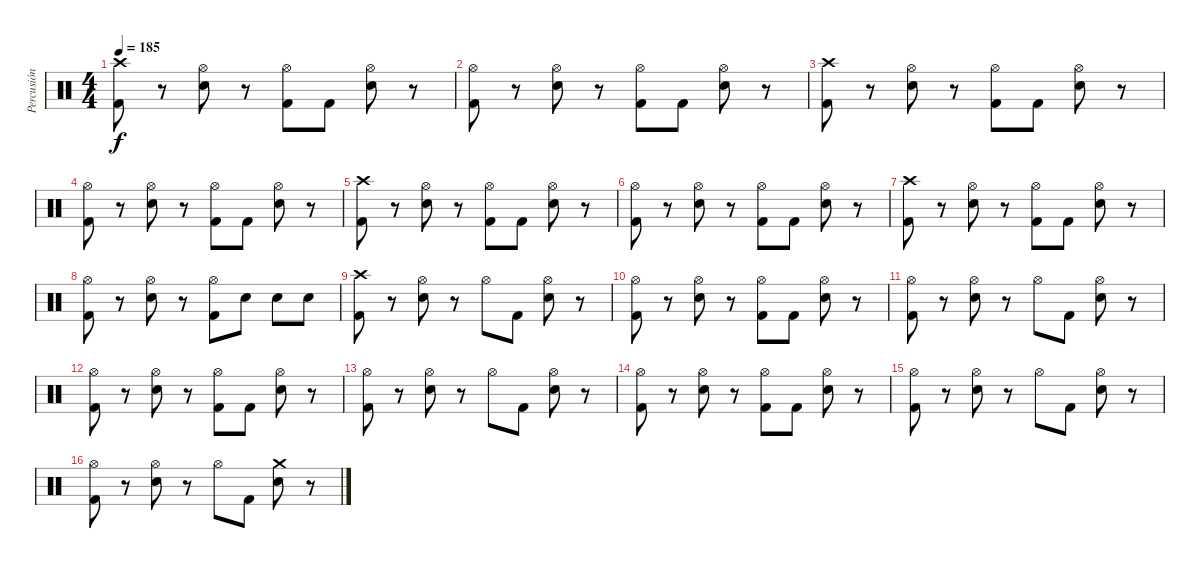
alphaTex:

\track ("Percusión" "Percusión") {instrument percussion}
\staff {score}
\articulation defaults
\ts (4 4)
\tempo 185
\clef neutral
\ks c
("Crash high (hit)" "Kick (hit) 2").8{dy f} r.8 ("Hi-Hat (open)" "Electric Snare (hit)").8 r.8 ("Hi-Hat (open)" "Kick (hit) 2").8 "Kick (hit) 2".8 ("Hi-Hat (open)" "Electric Snare (hit)").8 r.8 |
("Hi-Hat (open)" "Kick (hit) 2").8 r.8 ("Hi-Hat (open)" "Electric Snare (hit)").8 r.8 ("Hi-Hat (open)" "Kick (hit) 2").8 "Kick (hit) 2".8 ("Hi-Hat (open)" "Electric Snare (hit)").8 r.8 |
("Crash high (hit)" "Kick (hit) 2").8 r.8 ("Hi-Hat (open)" "Electric Snare (hit)").8 r.8 ("Hi-Hat (open)" "Kick (hit) 2").8 "Kick (hit) 2".8 ("Hi-Hat (open)" "Electric Snare (hit)").8 r.8 |
("Hi-Hat (open)" "Kick (hit) 2").8 r.8 ("Hi-Hat (open)" "Electric Snare (hit)").8 r.8 ("Hi-Hat (open)" "Kick (hit) 2").8 "Kick (hit) 2".8 ("Hi-Hat (open)" "Electric Snare (hit)").8 r.8 |
("Crash high (hit)" "Kick (hit) 2").8 r.8 ("Hi-Hat (open)" "Electric Snare (hit)").8 r.8 ("Hi-Hat (open)" "Kick (hit) 2").8 "Kick (hit) 2".8 ("Hi-Hat (open)" "Electric Snare (hit)").8 r.8 |
("Hi-Hat (open)" "Kick (hit) 2").8 r.8 ("Hi-Hat (open)" "Electric Snare (hit)").8 r.8 ("Hi-Hat (open)" "Kick (hit) 2").8 "Kick (hit) 2".8 ("Hi-Hat (open)" "Electric Snare (hit)").8 r.8 |
("Crash high (hit)" "Kick (hit) 2").8 r.8 ("Hi-Hat (open)" "Electric Snare (hit)").8 r.8 ("Hi-Hat (open)" "Kick (hit) 2").8 "Kick (hit) 2".8 ("Hi-Hat (open)" "Electric Snare (hit)").8 r.8 |
("Hi-Hat (open)" "Kick (hit) 2").8 r.8 ("Hi-Hat (open)" "Electric Snare (hit)").8 r.8 ("Hi-Hat (open)" "Kick (hit) 2").8 "Electric Snare (hit)".8 "Electric Snare (hit)".8 "Electric Snare (hit)".8 |
("Crash high (hit)" "Kick (hit) 2").8 r.8 ("Hi-Hat (open)" "Electric Snare (hit)").8 r.8 "Hi-Hat (open)".8 "Kick (hit) 2".8 ("Hi-Hat (open)" "Electric Snare (hit)").8 r.8 |
("Hi-Hat (open)" "Kick (hit) 2").8 r.8 ("Hi-Hat (open)" "Electric Snare (hit)").8 r.8 ("Hi-Hat (open)" "Kick (hit) 2").8 "Kick (hit) 2".8 ("Hi-Hat (open)" "Electric Snare (hit)").8 r.8 |
("Hi-Hat (open)" "Kick (hit) 2").8 r.8 ("Hi-Hat (open)" "Electric Snare (hit)").8 r.8 "Hi-Hat (open)".8 "Kick (hit) 2".8 ("Hi-Hat (open)" "Electric Snare (hit)").8 r.8 |
("Hi-Hat (open)" "Kick (hit) 2").8 r.8 ("Hi-Hat (open)" "Electric Snare (hit)").8 r.8 ("Hi-Hat (open)" "Kick (hit) 2").8 "Kick (hit) 2".8 ("Hi-Hat (open)" "Electric Snare (hit)").8 r.8 |
("Hi-Hat (open)" "Kick (hit) 2").8 r.8 ("Hi-Hat (open)" "Electric Snare (hit)").8 r.8 "Hi-Hat (open)".8 "Kick (hit) 2".8 ("Hi-Hat (open)" "Electric Snare (hit)").8 r.8 |
("Hi-Hat (open)" "Kick (hit) 2").8 r.8 ("Hi-Hat (open)" "Electric Snare (hit)").8 r.8 ("Hi-Hat (open)" "Kick (hit) 2").8 "Kick (hit) 2".8 ("Hi-Hat (open)" "Electric Snare (hit)").8 r.8 |
("Hi-Hat (open)" "Kick (hit) 2").8 r.8 ("Hi-Hat (open)" "Electric Snare (hit)").8 r.8 "Hi-Hat (open)".8 "Kick (hit) 2".8 ("Hi-Hat (open)" "Electric Snare (hit)").8 r.8 |
("Hi-Hat (open)" "Kick (hit) 2").8 r.8 ("Hi-Hat (open)" "Electric Snare (hit)").8 r.8 "Hi-Hat (open)".8 "Kick (hit) 2".8 ("Crash medium (hit)" "Electric Snare (hit)").8 r.8
